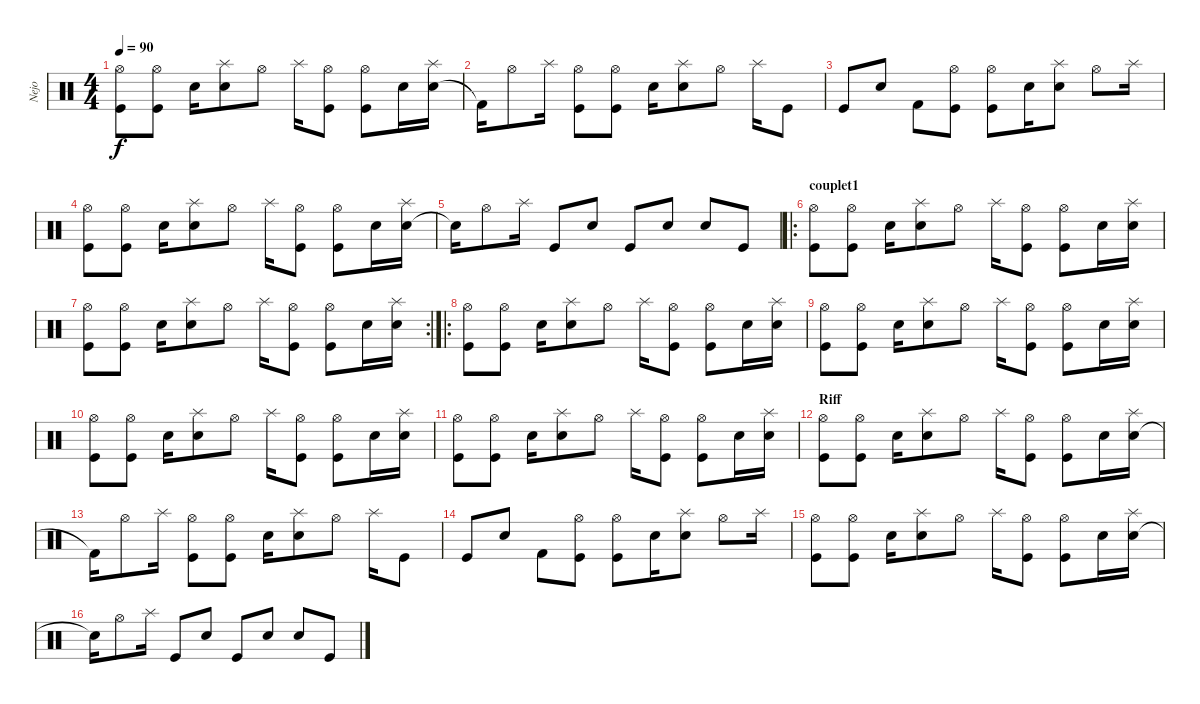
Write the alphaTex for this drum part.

\track ("Nejo" "Nejo") {instrument percussion}
\staff {score}
\articulation defaults
\ts (4 4)
\tempo 90
\clef neutral
\ks c
("Kick (hit)" "Hi-Hat (open)").8{dy f} ("Kick (hit)" "Hi-Hat (open)").8 "Electric Snare (hit)".16 ("Snare (hit) 2" "Splash (hit)").8 "Hi-Hat (open)".8 "Splash (hit)".16 ("Kick (hit)" "Hi-Hat (open)").8 ("Kick (hit)" "Hi-Hat (open)").8 "Electric Snare (hit)".16 ("Snare (hit) 2" "Splash (hit)").16 |
"Kick (hit) 2"{t}.16 "Hi-Hat (open)".8 "Splash (hit)".16 ("Kick (hit)" "Hi-Hat (open)").8 ("Kick (hit)" "Hi-Hat (open)").8 "Electric Snare (hit)".16 ("Snare (hit) 2" "Splash (hit)").8 "Hi-Hat (open)".8 "Splash (hit)".16 "Kick (hit)".8 |
"Kick (hit)".8 "Electric Snare (hit)".8 "Kick (hit) 2".8 ("Kick (hit)" "Hi-Hat (open)").8 ("Kick (hit)" "Hi-Hat (open)").8 "Electric Snare (hit)".16 ("Snare (hit) 2" "Splash (hit)").8 "Hi-Hat (open)".8 "Splash (hit)".16 |
("Kick (hit)" "Hi-Hat (open)").8 ("Kick (hit)" "Hi-Hat (open)").8 "Electric Snare (hit)".16 ("Snare (hit) 2" "Splash (hit)").8 "Hi-Hat (open)".8 "Splash (hit)".16 ("Kick (hit)" "Hi-Hat (open)").8 ("Kick (hit)" "Hi-Hat (open)").8 "Electric Snare (hit)".16 ("Snare (hit) 2" "Splash (hit)").16 |
"Snare (hit)"{t}.16 "Hi-Hat (open)".8 "Splash (hit)".16 "Kick (hit)".8 "Electric Snare (hit)".8 "Kick (hit)".8 "Electric Snare (hit)".8 "Electric Snare (hit)".8 "Kick (hit)".8 |
\ro
\section ("" "couplet1")
("Kick (hit)" "Hi-Hat (open)").8 ("Kick (hit)" "Hi-Hat (open)").8 "Electric Snare (hit)".16 ("Snare (hit) 2" "Splash (hit)").8 "Hi-Hat (open)".8 "Splash (hit)".16 ("Kick (hit)" "Hi-Hat (open)").8 ("Kick (hit)" "Hi-Hat (open)").8 "Electric Snare (hit)".16 ("Snare (hit) 2" "Splash (hit)").16 |
\rc 2
("Kick (hit)" "Hi-Hat (open)").8 ("Kick (hit)" "Hi-Hat (open)").8 "Electric Snare (hit)".16 ("Snare (hit) 2" "Splash (hit)").8 "Hi-Hat (open)".8 "Splash (hit)".16 ("Kick (hit)" "Hi-Hat (open)").8 ("Kick (hit)" "Hi-Hat (open)").8 "Electric Snare (hit)".16 ("Snare (hit) 2" "Splash (hit)").16 |
\ro
("Kick (hit)" "Hi-Hat (open)").8 ("Kick (hit)" "Hi-Hat (open)").8 "Electric Snare (hit)".16 ("Snare (hit) 2" "Splash (hit)").8 "Hi-Hat (open)".8 "Splash (hit)".16 ("Kick (hit)" "Hi-Hat (open)").8 ("Kick (hit)" "Hi-Hat (open)").8 "Electric Snare (hit)".16 ("Snare (hit) 2" "Splash (hit)").16 |
("Kick (hit)" "Hi-Hat (open)").8 ("Kick (hit)" "Hi-Hat (open)").8 "Electric Snare (hit)".16 ("Snare (hit) 2" "Splash (hit)").8 "Hi-Hat (open)".8 "Splash (hit)".16 ("Kick (hit)" "Hi-Hat (open)").8 ("Kick (hit)" "Hi-Hat (open)").8 "Electric Snare (hit)".16 ("Snare (hit) 2" "Splash (hit)").16 |
("Kick (hit)" "Hi-Hat (open)").8 ("Kick (hit)" "Hi-Hat (open)").8 "Electric Snare (hit)".16 ("Snare (hit) 2" "Splash (hit)").8 "Hi-Hat (open)".8 "Splash (hit)".16 ("Kick (hit)" "Hi-Hat (open)").8 ("Kick (hit)" "Hi-Hat (open)").8 "Electric Snare (hit)".16 ("Snare (hit) 2" "Splash (hit)").16 |
("Kick (hit)" "Hi-Hat (open)").8 ("Kick (hit)" "Hi-Hat (open)").8 "Electric Snare (hit)".16 ("Snare (hit) 2" "Splash (hit)").8 "Hi-Hat (open)".8 "Splash (hit)".16 ("Kick (hit)" "Hi-Hat (open)").8 ("Kick (hit)" "Hi-Hat (open)").8 "Electric Snare (hit)".16 ("Snare (hit) 2" "Splash (hit)").16 |
\section ("" "Riff")
("Kick (hit)" "Hi-Hat (open)").8 ("Kick (hit)" "Hi-Hat (open)").8 "Electric Snare (hit)".16 ("Snare (hit) 2" "Splash (hit)").8 "Hi-Hat (open)".8 "Splash (hit)".16 ("Kick (hit)" "Hi-Hat (open)").8 ("Kick (hit)" "Hi-Hat (open)").8 "Electric Snare (hit)".16 ("Snare (hit) 2" "Splash (hit)").16 |
"Kick (hit) 2"{t}.16 "Hi-Hat (open)".8 "Splash (hit)".16 ("Kick (hit)" "Hi-Hat (open)").8 ("Kick (hit)" "Hi-Hat (open)").8 "Electric Snare (hit)".16 ("Snare (hit) 2" "Splash (hit)").8 "Hi-Hat (open)".8 "Splash (hit)".16 "Kick (hit)".8 |
"Kick (hit)".8 "Electric Snare (hit)".8 "Kick (hit) 2".8 ("Kick (hit)" "Hi-Hat (open)").8 ("Kick (hit)" "Hi-Hat (open)").8 "Electric Snare (hit)".16 ("Snare (hit) 2" "Splash (hit)").8 "Hi-Hat (open)".8 "Splash (hit)".16 |
("Kick (hit)" "Hi-Hat (open)").8 ("Kick (hit)" "Hi-Hat (open)").8 "Electric Snare (hit)".16 ("Snare (hit) 2" "Splash (hit)").8 "Hi-Hat (open)".8 "Splash (hit)".16 ("Kick (hit)" "Hi-Hat (open)").8 ("Kick (hit)" "Hi-Hat (open)").8 "Electric Snare (hit)".16 ("Snare (hit) 2" "Splash (hit)").16 |
"Snare (hit)"{t}.16 "Hi-Hat (open)".8 "Splash (hit)".16 "Kick (hit)".8 "Electric Snare (hit)".8 "Kick (hit)".8 "Electric Snare (hit)".8 "Electric Snare (hit)".8 "Kick (hit)".8
